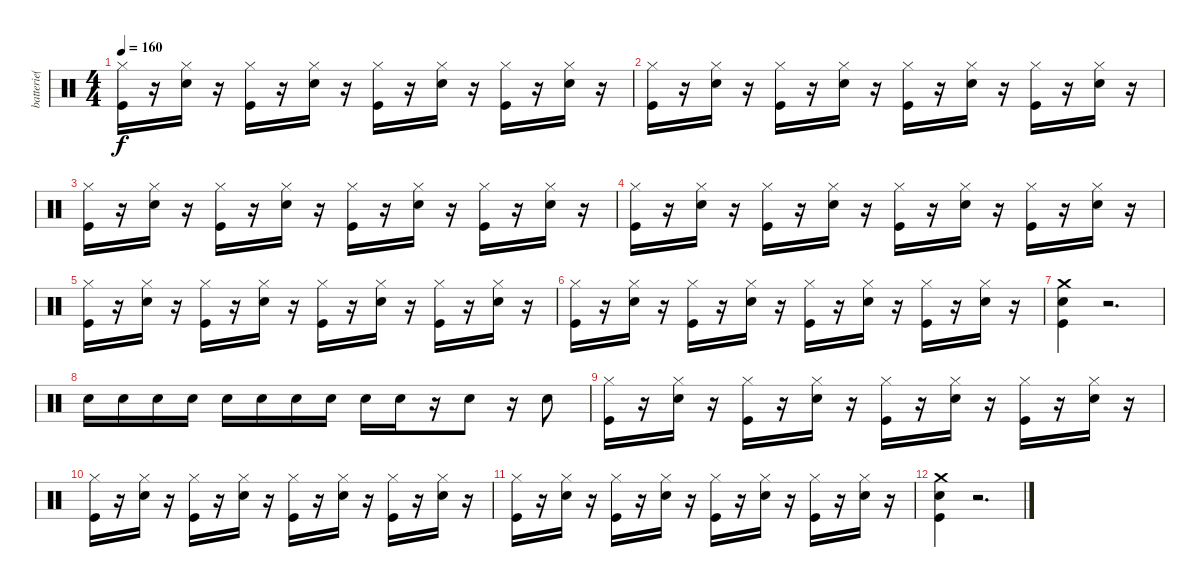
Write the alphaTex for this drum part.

\track ("batterie(  Jeff Nelson )" "batterie( ") {instrument percussion}
\staff {score}
\articulation defaults
\ts (4 4)
\tempo 160
\clef neutral
\ks c
("Hi-Hat (closed)" "Kick (hit)").16{dy f} r.16 ("Hi-Hat (closed)" "Snare (hit) 2").16 r.16 ("Hi-Hat (closed)" "Kick (hit)").16 r.16 ("Hi-Hat (closed)" "Snare (hit) 2").16 r.16 ("Hi-Hat (closed)" "Kick (hit)").16 r.16 ("Hi-Hat (closed)" "Snare (hit) 2").16 r.16 ("Hi-Hat (closed)" "Kick (hit)").16 r.16 ("Hi-Hat (closed)" "Snare (hit) 2").16 r.16 |
("Hi-Hat (closed)" "Kick (hit)").16 r.16 ("Hi-Hat (closed)" "Snare (hit) 2").16 r.16 ("Hi-Hat (closed)" "Kick (hit)").16 r.16 ("Hi-Hat (closed)" "Snare (hit) 2").16 r.16 ("Hi-Hat (closed)" "Kick (hit)").16 r.16 ("Hi-Hat (closed)" "Snare (hit) 2").16 r.16 ("Hi-Hat (closed)" "Kick (hit)").16 r.16 ("Hi-Hat (closed)" "Snare (hit) 2").16 r.16 |
("Hi-Hat (closed)" "Kick (hit)").16 r.16 ("Hi-Hat (closed)" "Snare (hit) 2").16 r.16 ("Hi-Hat (closed)" "Kick (hit)").16 r.16 ("Hi-Hat (closed)" "Snare (hit) 2").16 r.16 ("Hi-Hat (closed)" "Kick (hit)").16 r.16 ("Hi-Hat (closed)" "Snare (hit) 2").16 r.16 ("Hi-Hat (closed)" "Kick (hit)").16 r.16 ("Hi-Hat (closed)" "Snare (hit) 2").16 r.16 |
("Hi-Hat (closed)" "Kick (hit)").16 r.16 ("Hi-Hat (closed)" "Snare (hit) 2").16 r.16 ("Hi-Hat (closed)" "Kick (hit)").16 r.16 ("Hi-Hat (closed)" "Snare (hit) 2").16 r.16 ("Hi-Hat (closed)" "Kick (hit)").16 r.16 ("Hi-Hat (closed)" "Snare (hit) 2").16 r.16 ("Hi-Hat (closed)" "Kick (hit)").16 r.16 ("Hi-Hat (closed)" "Snare (hit) 2").16 r.16 |
("Hi-Hat (closed)" "Kick (hit)").16 r.16 ("Hi-Hat (closed)" "Snare (hit) 2").16 r.16 ("Hi-Hat (closed)" "Kick (hit)").16 r.16 ("Hi-Hat (closed)" "Snare (hit) 2").16 r.16 ("Hi-Hat (closed)" "Kick (hit)").16 r.16 ("Hi-Hat (closed)" "Snare (hit) 2").16 r.16 ("Hi-Hat (closed)" "Kick (hit)").16 r.16 ("Hi-Hat (closed)" "Snare (hit) 2").16 r.16 |
("Hi-Hat (closed)" "Kick (hit)").16 r.16 ("Hi-Hat (closed)" "Snare (hit) 2").16 r.16 ("Hi-Hat (closed)" "Kick (hit)").16 r.16 ("Hi-Hat (closed)" "Snare (hit) 2").16 r.16 ("Hi-Hat (closed)" "Kick (hit)").16 r.16 ("Hi-Hat (closed)" "Snare (hit) 2").16 r.16 ("Hi-Hat (closed)" "Kick (hit)").16 r.16 ("Hi-Hat (closed)" "Snare (hit) 2").16 r.16 |
("Crash medium (hit)" "Snare (hit) 2" "Kick (hit)").4 r.2{d} |
"Snare (hit) 2".16 "Snare (hit) 2".16 "Snare (hit) 2".16 "Snare (hit) 2".16 "Snare (hit) 2".16 "Snare (hit) 2".16 "Snare (hit) 2".16 "Snare (hit) 2".16 "Snare (hit) 2".16 "Snare (hit) 2".16 r.16 "Snare (hit) 2".8 r.16 "Snare (hit) 2".8 |
("Hi-Hat (closed)" "Kick (hit)").16 r.16 ("Hi-Hat (closed)" "Snare (hit) 2").16 r.16 ("Hi-Hat (closed)" "Kick (hit)").16 r.16 ("Hi-Hat (closed)" "Snare (hit) 2").16 r.16 ("Hi-Hat (closed)" "Kick (hit)").16 r.16 ("Hi-Hat (closed)" "Snare (hit) 2").16 r.16 ("Hi-Hat (closed)" "Kick (hit)").16 r.16 ("Hi-Hat (closed)" "Snare (hit) 2").16 r.16 |
("Hi-Hat (closed)" "Kick (hit)").16 r.16 ("Hi-Hat (closed)" "Snare (hit) 2").16 r.16 ("Hi-Hat (closed)" "Kick (hit)").16 r.16 ("Hi-Hat (closed)" "Snare (hit) 2").16 r.16 ("Hi-Hat (closed)" "Kick (hit)").16 r.16 ("Hi-Hat (closed)" "Snare (hit) 2").16 r.16 ("Hi-Hat (closed)" "Kick (hit)").16 r.16 ("Hi-Hat (closed)" "Snare (hit) 2").16 r.16 |
("Hi-Hat (closed)" "Kick (hit)").16 r.16 ("Hi-Hat (closed)" "Snare (hit) 2").16 r.16 ("Hi-Hat (closed)" "Kick (hit)").16 r.16 ("Hi-Hat (closed)" "Snare (hit) 2").16 r.16 ("Hi-Hat (closed)" "Kick (hit)").16 r.16 ("Hi-Hat (closed)" "Snare (hit) 2").16 r.16 ("Hi-Hat (closed)" "Kick (hit)").16 r.16 ("Hi-Hat (closed)" "Snare (hit) 2").16 r.16 |
("Crash medium (hit)" "Snare (hit) 2" "Kick (hit)").4 r.2{d}
